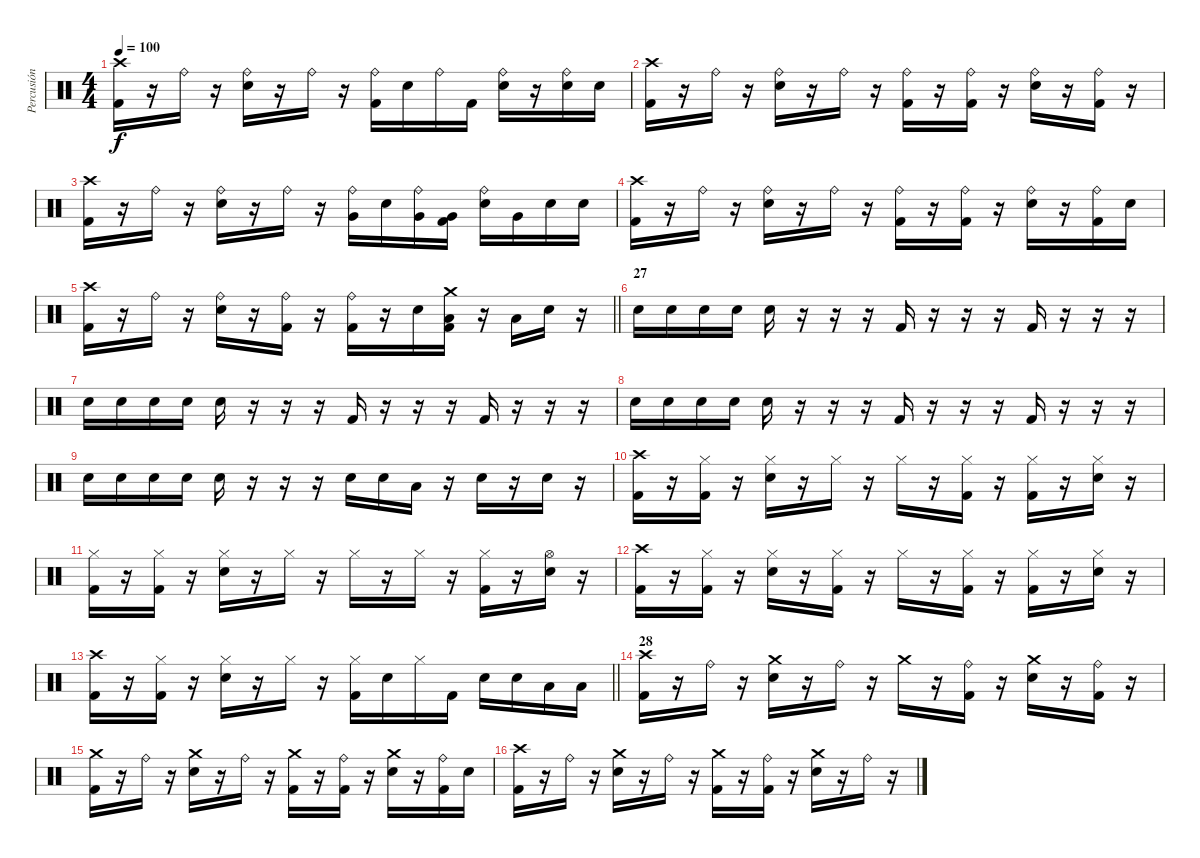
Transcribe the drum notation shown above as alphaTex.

\track ("Percusión" "Percusión") {instrument percussion}
\staff {score}
\articulation defaults
\ts (4 4)
\tempo 100
\clef neutral
\ks c
("Crash high (hit)" "Kick (hit) 2").16{dy f} r.16 "Ride (bell)".16 r.16 ("Ride (bell)" "Electric Snare (hit)").16 r.16 "Ride (bell)".16 r.16 ("Ride (bell)" "Kick (hit) 2").16 "Electric Snare (hit)".16 "Ride (bell)".16 "Kick (hit) 2".16 ("Ride (bell)" "Electric Snare (hit)").16 r.16 ("Ride (bell)" "Electric Snare (hit)").16 "Electric Snare (hit)".16 |
("Crash high (hit)" "Kick (hit) 2").16 r.16 "Ride (bell)".16 r.16 ("Ride (bell)" "Electric Snare (hit)").16 r.16 "Ride (bell)".16 r.16 ("Ride (bell)" "Kick (hit) 2").16 r.16 ("Ride (bell)" "Kick (hit) 2").16 r.16 ("Ride (bell)" "Electric Snare (hit)").16 r.16 ("Ride (bell)" "Kick (hit) 2").16 r.16 |
("Crash high (hit)" "Kick (hit) 2").16 r.16 "Ride (bell)".16 r.16 ("Ride (bell)" "Electric Snare (hit)").16 r.16 "Ride (bell)".16 r.16 ("Ride (bell)" "Very Low Tom (hit)").16 "Electric Snare (hit)".16 ("Ride (bell)" "Very Low Tom (hit)").16 ("Very Low Tom (hit)" "Kick (hit) 2").16 ("Ride (bell)" "Electric Snare (hit)").16 "Very Low Tom (hit)".16 "Electric Snare (hit)".16 "Electric Snare (hit)".16 |
("Crash high (hit)" "Kick (hit) 2").16 r.16 "Ride (bell)".16 r.16 ("Ride (bell)" "Electric Snare (hit)").16 r.16 "Ride (bell)".16 r.16 ("Ride (bell)" "Kick (hit) 2").16 r.16 ("Ride (bell)" "Kick (hit) 2").16 r.16 ("Ride (bell)" "Electric Snare (hit)").16 r.16 ("Ride (bell)" "Kick (hit) 2").16 "Electric Snare (hit)".16 |
\barLineRight lightlight
("Crash high (hit)" "Kick (hit) 2").16 r.16 "Ride (bell)".16 r.16 ("Ride (bell)" "Electric Snare (hit)").16 r.16 ("Ride (bell)" "Kick (hit) 2").16 r.16 ("Ride (bell)" "Kick (hit) 2").16 r.16 "Electric Snare (hit)".16 ("Crash medium (hit)" "Low Floor Tom (hit)" "Kick (hit) 2").16 r.16 "Low Floor Tom (hit)".16 "Electric Snare (hit)".16 r.16 |
\section ("" "27")
"Electric Snare (hit)".16 "Electric Snare (hit)".16 "Electric Snare (hit)".16 "Electric Snare (hit)".16 "Electric Snare (hit)".16 r.16 r.16 r.16 "Kick (hit) 2".16 r.16 r.16 r.16 "Kick (hit) 2".16 r.16 r.16 r.16 |
"Electric Snare (hit)".16 "Electric Snare (hit)".16 "Electric Snare (hit)".16 "Electric Snare (hit)".16 "Electric Snare (hit)".16 r.16 r.16 r.16 "Kick (hit) 2".16 r.16 r.16 r.16 "Kick (hit) 2".16 r.16 r.16 r.16 |
"Electric Snare (hit)".16 "Electric Snare (hit)".16 "Electric Snare (hit)".16 "Electric Snare (hit)".16 "Electric Snare (hit)".16 r.16 r.16 r.16 "Kick (hit) 2".16 r.16 r.16 r.16 "Kick (hit) 2".16 r.16 r.16 r.16 |
"Electric Snare (hit)".16 "Electric Snare (hit)".16 "Electric Snare (hit)".16 "Electric Snare (hit)".16 "Electric Snare (hit)".16 r.16 r.16 r.16 "Electric Snare (hit)".16 "Electric Snare (hit)".16 "Low Floor Tom (hit)".16 r.16 "Electric Snare (hit)".16 r.16 "Electric Snare (hit)".16 r.16 |
("Crash high (hit)" "Kick (hit) 2").16 r.16 ("Hi-Hat (closed)" "Kick (hit) 2").16 r.16 ("Hi-Hat (closed)" "Electric Snare (hit)").16 r.16 "Hi-Hat (closed)".16 r.16 "Hi-Hat (closed)".16 r.16 ("Hi-Hat (closed)" "Kick (hit) 2").16 r.16 ("Hi-Hat (closed)" "Kick (hit) 2").16 r.16 ("Hi-Hat (closed)" "Electric Snare (hit)").16 r.16 |
("Hi-Hat (closed)" "Kick (hit) 2").16 r.16 ("Hi-Hat (closed)" "Kick (hit) 2").16 r.16 ("Hi-Hat (closed)" "Electric Snare (hit)").16 r.16 "Hi-Hat (closed)".16 r.16 "Hi-Hat (closed)".16 r.16 "Hi-Hat (closed)".16 r.16 ("Hi-Hat (closed)" "Kick (hit) 2").16 r.16 ("Hi-Hat (open)" "Electric Snare (hit)").16 r.16 |
("Crash high (hit)" "Kick (hit) 2").16 r.16 ("Hi-Hat (closed)" "Kick (hit) 2").16 r.16 ("Hi-Hat (closed)" "Electric Snare (hit)").16 r.16 ("Hi-Hat (closed)" "Kick (hit) 2").16 r.16 "Hi-Hat (closed)".16 r.16 ("Hi-Hat (closed)" "Kick (hit) 2").16 r.16 ("Hi-Hat (closed)" "Kick (hit) 2").16 r.16 ("Hi-Hat (closed)" "Electric Snare (hit)").16 r.16 |
\barLineRight lightlight
("Crash high (hit)" "Kick (hit) 2").16 r.16 ("Hi-Hat (closed)" "Kick (hit) 2").16 r.16 ("Hi-Hat (closed)" "Electric Snare (hit)").16 r.16 "Hi-Hat (closed)".16 r.16 ("Hi-Hat (closed)" "Kick (hit) 2").16 "Electric Snare (hit)".16 "Hi-Hat (closed)".16 "Kick (hit) 2".16 "Electric Snare (hit)".16 "Electric Snare (hit)".16 "Low Floor Tom (hit)".16 "Low Floor Tom (hit)".16 |
\section ("" "28")
("Crash high (hit)" "Kick (hit) 2").16 r.16 "Ride (bell)".16 r.16 ("Crash medium (hit)" "Electric Snare (hit)").16 r.16 "Ride (bell)".16 r.16 "Crash medium (hit)".16 r.16 ("Ride (bell)" "Kick (hit) 2").16 r.16 ("Crash medium (hit)" "Electric Snare (hit)").16 r.16 ("Ride (bell)" "Kick (hit) 2").16 r.16 |
("Crash medium (hit)" "Kick (hit) 2").16 r.16 "Ride (bell)".16 r.16 ("Crash medium (hit)" "Electric Snare (hit)").16 r.16 "Ride (bell)".16 r.16 ("Crash medium (hit)" "Kick (hit) 2").16 r.16 ("Ride (bell)" "Kick (hit) 2").16 r.16 ("Crash medium (hit)" "Electric Snare (hit)").16 r.16 ("Ride (bell)" "Kick (hit) 2").16 "Electric Snare (hit)".16 |
("Crash high (hit)" "Kick (hit) 2").16 r.16 "Ride (bell)".16 r.16 ("Crash medium (hit)" "Electric Snare (hit)").16 r.16 "Ride (bell)".16 r.16 ("Crash medium (hit)" "Kick (hit) 2").16 r.16 ("Ride (bell)" "Kick (hit) 2").16 r.16 ("Crash medium (hit)" "Electric Snare (hit)").16 r.16 "Ride (bell)".16 r.16
